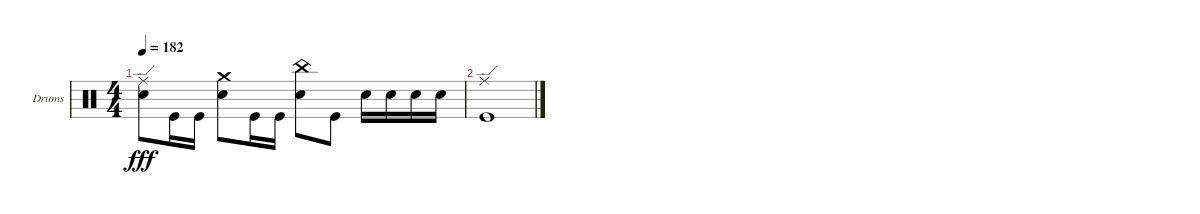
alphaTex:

\defaultSystemsLayout 4
\bracketExtendMode groupsimilarinstruments
\firstSystemTrackNameOrientation horizontal
\otherSystemsTrackNameOrientation horizontal
\track ("Drumkit" "Drums") {instrument percussion}
\staff {score}
\articulation defaults
\ts (4 4)
\tempo 182
\clef neutral
\ks c
("Snare (hit) 2" "Ride (edge)").8{dy fff} "Kick (hit)".16 "Kick (hit)".16 ("Snare (hit) 2" "Crash medium (hit)").8 "Kick (hit)".16 "Kick (hit)".16 ("Snare (hit) 2" "China (hit)").8 "Kick (hit)".8 "Snare (hit) 2".16 "Snare (hit) 2".16 "Snare (hit) 2".16 "Snare (hit) 2".16 |
("Ride (edge)" "Kick (hit)").1
